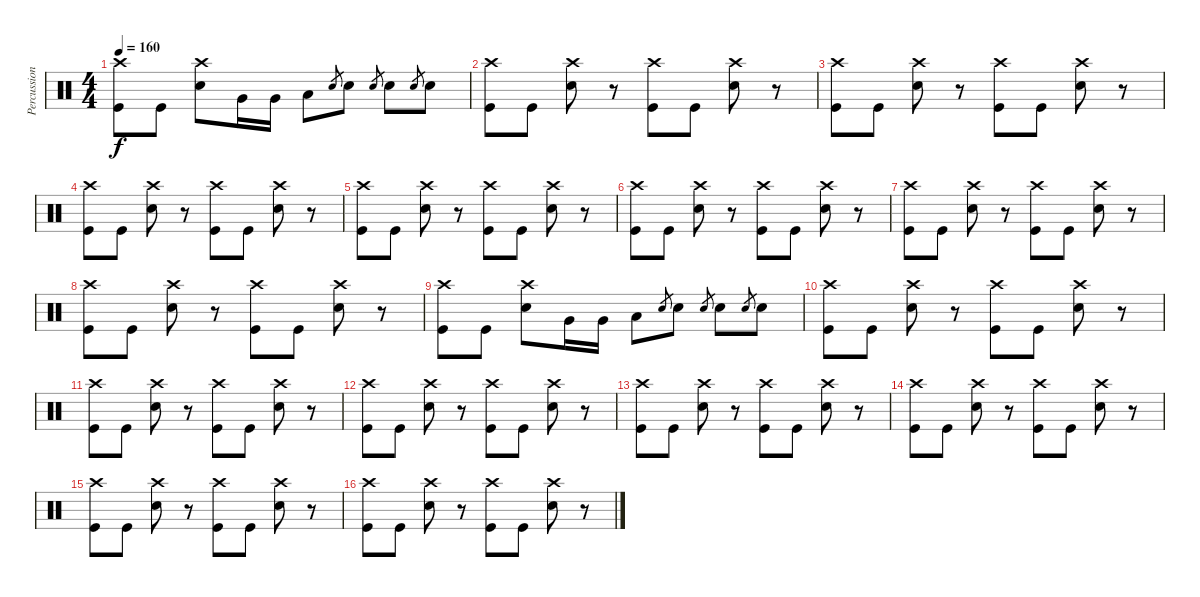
\track ("Percussion" "Percussion") {instrument percussion}
\staff {score}
\articulation defaults
\ts (4 4)
\tempo 160
\clef neutral
\ks c
("Crash high (hit)" "Kick (hit)").8{dy f} "Kick (hit)".8 ("Crash high (hit)" "Electric Snare (hit)").8 "Very Low Tom (hit)".16 "Very Low Tom (hit)".16 "Low Floor Tom (hit)".8 "Electric Snare (hit)".8{gr} "Electric Snare (hit)".8 "Electric Snare (hit)".8{gr} "Electric Snare (hit)".8 "Electric Snare (hit)".8{gr} "Electric Snare (hit)".8 |
("Crash high (hit)" "Kick (hit)").8 "Kick (hit)".8 ("Crash high (hit)" "Electric Snare (hit)").8 r.8 ("Crash high (hit)" "Kick (hit)").8 "Kick (hit)".8 ("Crash high (hit)" "Electric Snare (hit)").8 r.8 |
("Crash high (hit)" "Kick (hit)").8 "Kick (hit)".8 ("Crash high (hit)" "Electric Snare (hit)").8 r.8 ("Crash high (hit)" "Kick (hit)").8 "Kick (hit)".8 ("Crash high (hit)" "Electric Snare (hit)").8 r.8 |
("Crash high (hit)" "Kick (hit)").8 "Kick (hit)".8 ("Crash high (hit)" "Electric Snare (hit)").8 r.8 ("Crash high (hit)" "Kick (hit)").8 "Kick (hit)".8 ("Crash high (hit)" "Electric Snare (hit)").8 r.8 |
("Crash high (hit)" "Kick (hit)").8 "Kick (hit)".8 ("Crash high (hit)" "Electric Snare (hit)").8 r.8 ("Crash high (hit)" "Kick (hit)").8 "Kick (hit)".8 ("Crash high (hit)" "Electric Snare (hit)").8 r.8 |
("Crash high (hit)" "Kick (hit)").8 "Kick (hit)".8 ("Crash high (hit)" "Electric Snare (hit)").8 r.8 ("Crash high (hit)" "Kick (hit)").8 "Kick (hit)".8 ("Crash high (hit)" "Electric Snare (hit)").8 r.8 |
("Crash high (hit)" "Kick (hit)").8 "Kick (hit)".8 ("Crash high (hit)" "Electric Snare (hit)").8 r.8 ("Crash high (hit)" "Kick (hit)").8 "Kick (hit)".8 ("Crash high (hit)" "Electric Snare (hit)").8 r.8 |
("Crash high (hit)" "Kick (hit)").8 "Kick (hit)".8 ("Crash high (hit)" "Electric Snare (hit)").8 r.8 ("Crash high (hit)" "Kick (hit)").8 "Kick (hit)".8 ("Crash high (hit)" "Electric Snare (hit)").8 r.8 |
("Crash high (hit)" "Kick (hit)").8 "Kick (hit)".8 ("Crash high (hit)" "Electric Snare (hit)").8 "Very Low Tom (hit)".16 "Very Low Tom (hit)".16 "Low Floor Tom (hit)".8 "Electric Snare (hit)".8{gr} "Electric Snare (hit)".8 "Electric Snare (hit)".8{gr} "Electric Snare (hit)".8 "Electric Snare (hit)".8{gr} "Electric Snare (hit)".8 |
("Crash high (hit)" "Kick (hit)").8 "Kick (hit)".8 ("Crash high (hit)" "Electric Snare (hit)").8 r.8 ("Crash high (hit)" "Kick (hit)").8 "Kick (hit)".8 ("Crash high (hit)" "Electric Snare (hit)").8 r.8 |
("Crash high (hit)" "Kick (hit)").8 "Kick (hit)".8 ("Crash high (hit)" "Electric Snare (hit)").8 r.8 ("Crash high (hit)" "Kick (hit)").8 "Kick (hit)".8 ("Crash high (hit)" "Electric Snare (hit)").8 r.8 |
("Crash high (hit)" "Kick (hit)").8 "Kick (hit)".8 ("Crash high (hit)" "Electric Snare (hit)").8 r.8 ("Crash high (hit)" "Kick (hit)").8 "Kick (hit)".8 ("Crash high (hit)" "Electric Snare (hit)").8 r.8 |
("Crash high (hit)" "Kick (hit)").8 "Kick (hit)".8 ("Crash high (hit)" "Electric Snare (hit)").8 r.8 ("Crash high (hit)" "Kick (hit)").8 "Kick (hit)".8 ("Crash high (hit)" "Electric Snare (hit)").8 r.8 |
("Crash high (hit)" "Kick (hit)").8 "Kick (hit)".8 ("Crash high (hit)" "Electric Snare (hit)").8 r.8 ("Crash high (hit)" "Kick (hit)").8 "Kick (hit)".8 ("Crash high (hit)" "Electric Snare (hit)").8 r.8 |
("Crash high (hit)" "Kick (hit)").8 "Kick (hit)".8 ("Crash high (hit)" "Electric Snare (hit)").8 r.8 ("Crash high (hit)" "Kick (hit)").8 "Kick (hit)".8 ("Crash high (hit)" "Electric Snare (hit)").8 r.8 |
("Crash high (hit)" "Kick (hit)").8 "Kick (hit)".8 ("Crash high (hit)" "Electric Snare (hit)").8 r.8 ("Crash high (hit)" "Kick (hit)").8 "Kick (hit)".8 ("Crash high (hit)" "Electric Snare (hit)").8 r.8
